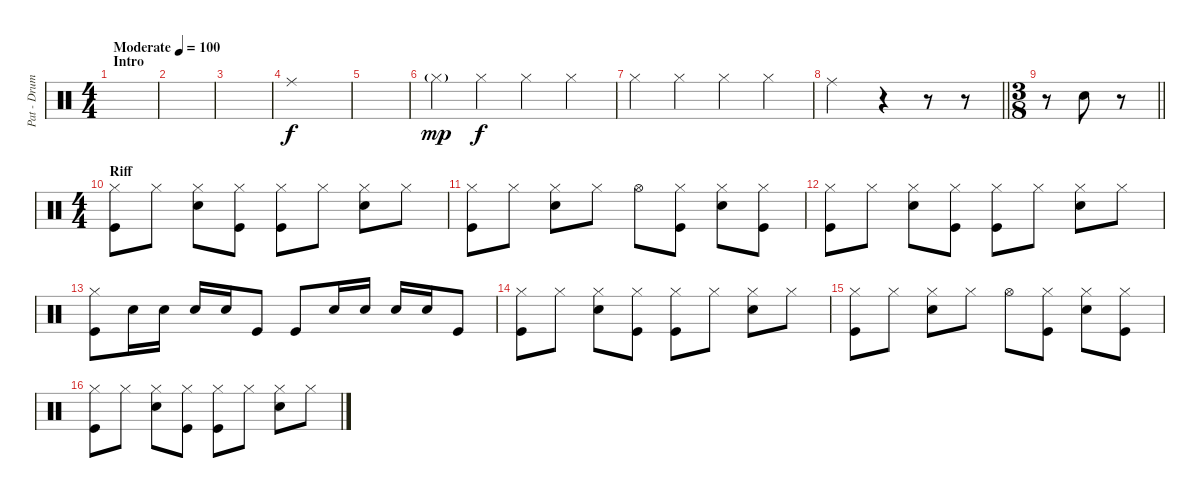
\track ("Pat - Drums" "Pat - Drum") {instrument percussion}
\staff {score}
\articulation defaults
\ts (4 4)
\section ("" "Intro")
\tempo (100 "Moderate")
\clef neutral
\ks c
|
|
|
"Ride (middle)".1 |
|
"Hi-Hat (closed)"{g}.4{dy mp} "Hi-Hat (closed)".4{dy f} "Hi-Hat (closed)".4 "Hi-Hat (closed)".4 |
"Hi-Hat (closed)".4 "Hi-Hat (closed)".4 "Hi-Hat (closed)".4 "Hi-Hat (closed)".4 |
\barLineRight lightlight "Ride (middle)".2
r.4 r.8 r.8 |
\ts (3 8)
\barLineRight lightlight
r.8 "Electric Snare (hit)".8 r.8 |
\ts (4 4)
\section ("" "Riff")
("Hi-Hat (closed)" "Kick (hit)").8 "Hi-Hat (closed)".8 ("Hi-Hat (closed)" "Electric Snare (hit)").8 ("Hi-Hat (closed)" "Kick (hit)").8 ("Hi-Hat (closed)" "Kick (hit)").8 "Hi-Hat (closed)".8 ("Hi-Hat (closed)" "Electric Snare (hit)").8 "Hi-Hat (closed)".8 |
("Hi-Hat (closed)" "Kick (hit)").8 "Hi-Hat (closed)".8 ("Hi-Hat (closed)" "Electric Snare (hit)").8 "Hi-Hat (closed)".8 "Hi-Hat (open)".8 ("Hi-Hat (closed)" "Kick (hit)").8 ("Hi-Hat (closed)" "Electric Snare (hit)").8 ("Hi-Hat (closed)" "Kick (hit)").8 |
("Hi-Hat (closed)" "Kick (hit)").8 "Hi-Hat (closed)".8 ("Hi-Hat (closed)" "Electric Snare (hit)").8 ("Hi-Hat (closed)" "Kick (hit)").8 ("Hi-Hat (closed)" "Kick (hit)").8 "Hi-Hat (closed)".8 ("Hi-Hat (closed)" "Electric Snare (hit)").8 "Hi-Hat (closed)".8 |
("Hi-Hat (closed)" "Kick (hit)").8 "Electric Snare (hit)".16 "Electric Snare (hit)".16 "Electric Snare (hit)".16 "Electric Snare (hit)".16 "Kick (hit)".8 "Kick (hit)".8 "Electric Snare (hit)".16 "Electric Snare (hit)".16 "Electric Snare (hit)".16 "Electric Snare (hit)".16 "Kick (hit)".8 |
("Hi-Hat (closed)" "Kick (hit)").8 "Hi-Hat (closed)".8 ("Hi-Hat (closed)" "Electric Snare (hit)").8 ("Hi-Hat (closed)" "Kick (hit)").8 ("Hi-Hat (closed)" "Kick (hit)").8 "Hi-Hat (closed)".8 ("Hi-Hat (closed)" "Electric Snare (hit)").8 "Hi-Hat (closed)".8 |
("Hi-Hat (closed)" "Kick (hit)").8 "Hi-Hat (closed)".8 ("Hi-Hat (closed)" "Electric Snare (hit)").8 "Hi-Hat (closed)".8 "Hi-Hat (open)".8 ("Hi-Hat (closed)" "Kick (hit)").8 ("Hi-Hat (closed)" "Electric Snare (hit)").8 ("Hi-Hat (closed)" "Kick (hit)").8 |
("Hi-Hat (closed)" "Kick (hit)").8 "Hi-Hat (closed)".8 ("Hi-Hat (closed)" "Electric Snare (hit)").8 ("Hi-Hat (closed)" "Kick (hit)").8 ("Hi-Hat (closed)" "Kick (hit)").8 "Hi-Hat (closed)".8 ("Hi-Hat (closed)" "Electric Snare (hit)").8 "Hi-Hat (closed)".8
